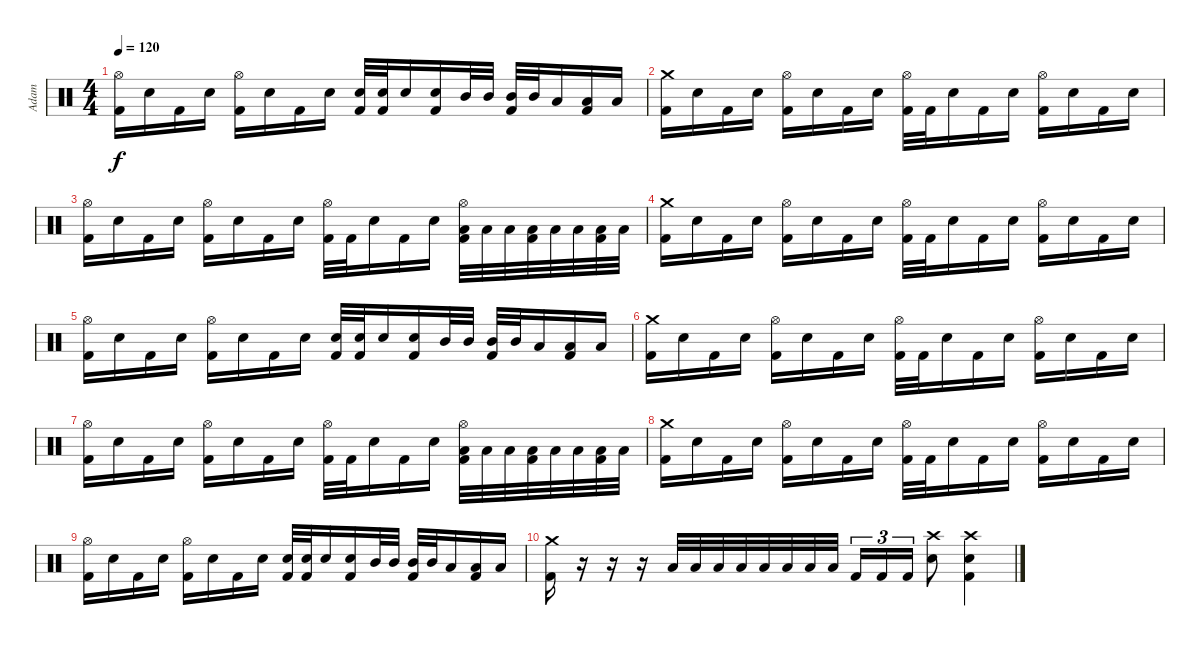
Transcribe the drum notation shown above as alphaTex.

\track ("Adam" "Adam") {instrument percussion}
\staff {score}
\articulation defaults
\ts (4 4)
\tempo 120
\clef neutral
\ks c
("Hi-Hat (open)" "Kick (hit) 2").16{dy f} "Electric Snare (hit)".16 "Kick (hit) 2".16 "Electric Snare (hit)".16 ("Hi-Hat (open)" "Kick (hit) 2").16 "Electric Snare (hit)".16 "Kick (hit) 2".16 "Electric Snare (hit)".16 ("Electric Snare (hit)" "Kick (hit) 2").32 ("Electric Snare (hit)" "Kick (hit) 2").32 "Electric Snare (hit)".16 ("Electric Snare (hit)" "Kick (hit) 2").16 "Mid Tom (hit)".32 "Mid Tom (hit)".32 ("Mid Tom (hit)" "Kick (hit) 2").32 "Mid Tom (hit)".32 "Low Tom (hit)".16 ("Low Tom (hit)" "Kick (hit) 2").16 "Low Tom (hit)".16 |
("Crash medium (hit)" "Kick (hit) 2").16 "Electric Snare (hit)".16 "Kick (hit) 2".16 "Electric Snare (hit)".16 ("Hi-Hat (open)" "Kick (hit) 2").16 "Electric Snare (hit)".16 "Kick (hit) 2".16 "Electric Snare (hit)".16 ("Hi-Hat (open)" "Kick (hit) 2").32 "Kick (hit) 2".32 "Electric Snare (hit)".16 "Kick (hit) 2".16 "Electric Snare (hit)".16 ("Hi-Hat (open)" "Kick (hit) 2").16 "Electric Snare (hit)".16 "Kick (hit) 2".16 "Electric Snare (hit)".16 |
("Hi-Hat (open)" "Kick (hit) 2").16 "Electric Snare (hit)".16 "Kick (hit) 2".16 "Electric Snare (hit)".16 ("Hi-Hat (open)" "Kick (hit) 2").16 "Electric Snare (hit)".16 "Kick (hit) 2".16 "Electric Snare (hit)".16 ("Hi-Hat (open)" "Kick (hit) 2").32 "Kick (hit) 2".32 "Electric Snare (hit)".16 "Kick (hit) 2".16 "Electric Snare (hit)".16 ("Hi-Hat (open)" "Low Tom (hit)" "Kick (hit) 2").32 "Low Tom (hit)".32 "Low Tom (hit)".32 ("Low Tom (hit)" "Kick (hit) 2").32 "Low Tom (hit)".32 "Low Floor Tom (hit)".32 ("Low Floor Tom (hit)" "Kick (hit) 2").32 "Low Floor Tom (hit)".32 |
("Crash medium (hit)" "Kick (hit) 2").16 "Electric Snare (hit)".16 "Kick (hit) 2".16 "Electric Snare (hit)".16 ("Hi-Hat (open)" "Kick (hit) 2").16 "Electric Snare (hit)".16 "Kick (hit) 2".16 "Electric Snare (hit)".16 ("Hi-Hat (open)" "Kick (hit) 2").32 "Kick (hit) 2".32 "Electric Snare (hit)".16 "Kick (hit) 2".16 "Electric Snare (hit)".16 ("Hi-Hat (open)" "Kick (hit) 2").16 "Electric Snare (hit)".16 "Kick (hit) 2".16 "Electric Snare (hit)".16 |
("Hi-Hat (open)" "Kick (hit) 2").16 "Electric Snare (hit)".16 "Kick (hit) 2".16 "Electric Snare (hit)".16 ("Hi-Hat (open)" "Kick (hit) 2").16 "Electric Snare (hit)".16 "Kick (hit) 2".16 "Electric Snare (hit)".16 ("Electric Snare (hit)" "Kick (hit) 2").32 ("Electric Snare (hit)" "Kick (hit) 2").32 "Electric Snare (hit)".16 ("Electric Snare (hit)" "Kick (hit) 2").16 "Mid Tom (hit)".32 "Mid Tom (hit)".32 ("Mid Tom (hit)" "Kick (hit) 2").32 "Mid Tom (hit)".32 "Low Tom (hit)".16 ("Low Tom (hit)" "Kick (hit) 2").16 "Low Tom (hit)".16 |
("Crash medium (hit)" "Kick (hit) 2").16 "Electric Snare (hit)".16 "Kick (hit) 2".16 "Electric Snare (hit)".16 ("Hi-Hat (open)" "Kick (hit) 2").16 "Electric Snare (hit)".16 "Kick (hit) 2".16 "Electric Snare (hit)".16 ("Hi-Hat (open)" "Kick (hit) 2").32 "Kick (hit) 2".32 "Electric Snare (hit)".16 "Kick (hit) 2".16 "Electric Snare (hit)".16 ("Hi-Hat (open)" "Kick (hit) 2").16 "Electric Snare (hit)".16 "Kick (hit) 2".16 "Electric Snare (hit)".16 |
("Hi-Hat (open)" "Kick (hit) 2").16 "Electric Snare (hit)".16 "Kick (hit) 2".16 "Electric Snare (hit)".16 ("Hi-Hat (open)" "Kick (hit) 2").16 "Electric Snare (hit)".16 "Kick (hit) 2".16 "Electric Snare (hit)".16 ("Hi-Hat (open)" "Kick (hit) 2").32 "Kick (hit) 2".32 "Electric Snare (hit)".16 "Kick (hit) 2".16 "Electric Snare (hit)".16 ("Hi-Hat (open)" "Low Tom (hit)" "Kick (hit) 2").32 "Low Tom (hit)".32 "Low Tom (hit)".32 ("Low Tom (hit)" "Kick (hit) 2").32 "Low Tom (hit)".32 "Low Floor Tom (hit)".32 ("Low Floor Tom (hit)" "Kick (hit) 2").32 "Low Floor Tom (hit)".32 |
("Crash medium (hit)" "Kick (hit) 2").16 "Electric Snare (hit)".16 "Kick (hit) 2".16 "Electric Snare (hit)".16 ("Hi-Hat (open)" "Kick (hit) 2").16 "Electric Snare (hit)".16 "Kick (hit) 2".16 "Electric Snare (hit)".16 ("Hi-Hat (open)" "Kick (hit) 2").32 "Kick (hit) 2".32 "Electric Snare (hit)".16 "Kick (hit) 2".16 "Electric Snare (hit)".16 ("Hi-Hat (open)" "Kick (hit) 2").16 "Electric Snare (hit)".16 "Kick (hit) 2".16 "Electric Snare (hit)".16 |
("Hi-Hat (open)" "Kick (hit) 2").16 "Electric Snare (hit)".16 "Kick (hit) 2".16 "Electric Snare (hit)".16 ("Hi-Hat (open)" "Kick (hit) 2").16 "Electric Snare (hit)".16 "Kick (hit) 2".16 "Electric Snare (hit)".16 ("Electric Snare (hit)" "Kick (hit) 2").32 ("Electric Snare (hit)" "Kick (hit) 2").32 "Electric Snare (hit)".16 ("Electric Snare (hit)" "Kick (hit) 2").16 "Mid Tom (hit)".32 "Mid Tom (hit)".32 ("Mid Tom (hit)" "Kick (hit) 2").32 "Mid Tom (hit)".32 "Low Tom (hit)".16 ("Low Tom (hit)" "Kick (hit) 2").16 "Low Tom (hit)".16 |
("Crash medium (hit)" "Kick (hit) 2").16 r.16 r.16 r.16 "Low Tom (hit)".32 "Low Tom (hit)".32 "Low Tom (hit)".32 "Low Tom (hit)".32 "Low Tom (hit)".32 "Low Tom (hit)".32 "Low Tom (hit)".32 "Low Tom (hit)".32 "Kick (hit) 2".16{tu (3 2)} "Kick (hit) 2".16{tu (3 2)} "Kick (hit) 2".16{tu (3 2)} ("Crash high (hit)" "Electric Snare (hit)").8 ("Crash high (hit)" "Electric Snare (hit)" "Kick (hit) 2").4
